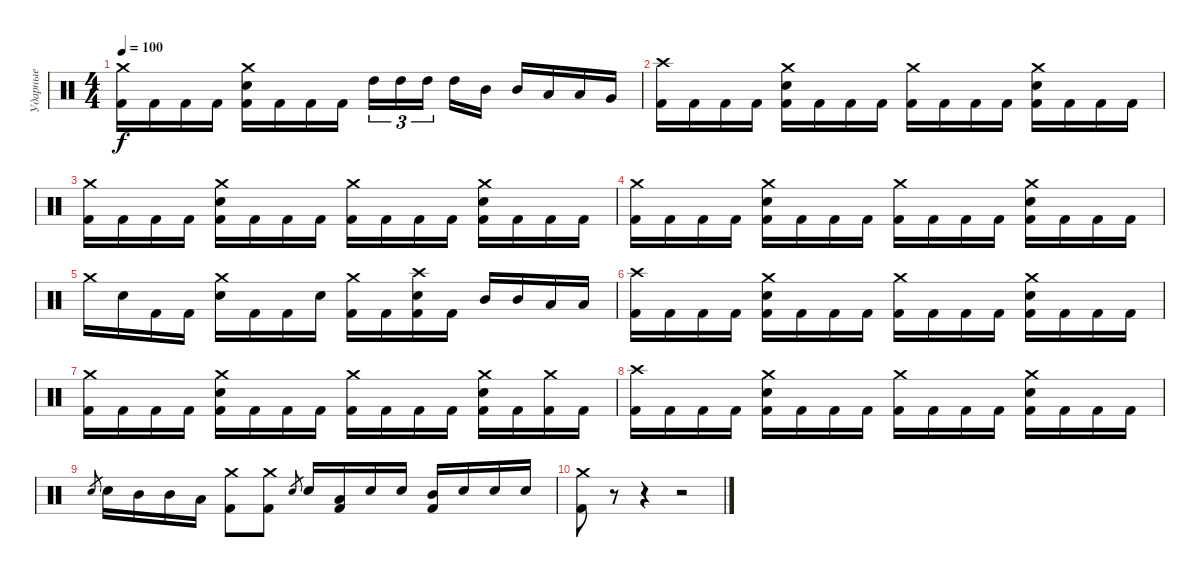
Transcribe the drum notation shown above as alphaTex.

\track ("Ударные" "Ударные") {instrument percussion}
\staff {score}
\articulation defaults
\ts (4 4)
\tempo 100
\clef neutral
\ks c
("Crash medium (hit)" "Kick (hit) 2").16{dy f} "Kick (hit) 2".16 "Kick (hit) 2".16 "Kick (hit) 2".16 ("Crash medium (hit)" "Electric Snare (hit)" "Kick (hit) 2").16 "Kick (hit) 2".16 "Kick (hit) 2".16 "Kick (hit) 2".16 "High Tom (hit)".16{tu (3 2)} "High Tom (hit)".16{tu (3 2)} "High Tom (hit)".16{tu (3 2) beam splitsecondary} "High Tom (hit)".16 "Mid Tom (hit)".16 "Mid Tom (hit)".16 "Low Tom (hit)".16 "Low Tom (hit)".16 "Very Low Tom (hit)".16 |
("Crash high (hit)" "Kick (hit) 2").16 "Kick (hit) 2".16 "Kick (hit) 2".16 "Kick (hit) 2".16 ("Crash medium (hit)" "Electric Snare (hit)" "Kick (hit) 2").16 "Kick (hit) 2".16 "Kick (hit) 2".16 "Kick (hit) 2".16 ("Crash medium (hit)" "Kick (hit) 2").16 "Kick (hit) 2".16 "Kick (hit) 2".16 "Kick (hit) 2".16 ("Crash medium (hit)" "Electric Snare (hit)" "Kick (hit) 2").16 "Kick (hit) 2".16 "Kick (hit) 2".16 "Kick (hit) 2".16 |
("Crash medium (hit)" "Kick (hit) 2").16 "Kick (hit) 2".16 "Kick (hit) 2".16 "Kick (hit) 2".16 ("Crash medium (hit)" "Electric Snare (hit)" "Kick (hit) 2").16 "Kick (hit) 2".16 "Kick (hit) 2".16 "Kick (hit) 2".16 ("Crash medium (hit)" "Kick (hit) 2").16 "Kick (hit) 2".16 "Kick (hit) 2".16 "Kick (hit) 2".16 ("Crash medium (hit)" "Electric Snare (hit)" "Kick (hit) 2").16 "Kick (hit) 2".16 "Kick (hit) 2".16 "Kick (hit) 2".16 |
("Crash medium (hit)" "Kick (hit) 2").16 "Kick (hit) 2".16 "Kick (hit) 2".16 "Kick (hit) 2".16 ("Crash medium (hit)" "Electric Snare (hit)" "Kick (hit) 2").16 "Kick (hit) 2".16 "Kick (hit) 2".16 "Kick (hit) 2".16 ("Crash medium (hit)" "Kick (hit) 2").16 "Kick (hit) 2".16 "Kick (hit) 2".16 "Kick (hit) 2".16 ("Crash medium (hit)" "Electric Snare (hit)" "Kick (hit) 2").16 "Kick (hit) 2".16 "Kick (hit) 2".16 "Kick (hit) 2".16 |
"Crash medium (hit)".16 "Electric Snare (hit)".16 "Kick (hit) 2".16 "Kick (hit) 2".16 ("Electric Snare (hit)" "Crash medium (hit)").16 "Kick (hit) 2".16 "Kick (hit) 2".16 "Electric Snare (hit)".16 ("Kick (hit) 2" "Crash medium (hit)").16 "Kick (hit) 2".16 ("Kick (hit) 2" "Electric Snare (hit)" "Crash high (hit)").16 "Kick (hit) 2".16 "Mid Tom (hit)".16 "Mid Tom (hit)".16 "Low Tom (hit)".16 "Low Tom (hit)".16 |
("Crash high (hit)" "Kick (hit) 2").16 "Kick (hit) 2".16 "Kick (hit) 2".16 "Kick (hit) 2".16 ("Crash medium (hit)" "Electric Snare (hit)" "Kick (hit) 2").16 "Kick (hit) 2".16 "Kick (hit) 2".16 "Kick (hit) 2".16 ("Crash medium (hit)" "Kick (hit) 2").16 "Kick (hit) 2".16 "Kick (hit) 2".16 "Kick (hit) 2".16 ("Crash medium (hit)" "Electric Snare (hit)" "Kick (hit) 2").16 "Kick (hit) 2".16 "Kick (hit) 2".16 "Kick (hit) 2".16 |
("Crash medium (hit)" "Kick (hit) 2").16 "Kick (hit) 2".16 "Kick (hit) 2".16 "Kick (hit) 2".16 ("Crash medium (hit)" "Electric Snare (hit)" "Kick (hit) 2").16 "Kick (hit) 2".16 "Kick (hit) 2".16 "Kick (hit) 2".16 ("Crash medium (hit)" "Kick (hit) 2").16 "Kick (hit) 2".16 "Kick (hit) 2".16 "Kick (hit) 2".16 ("Crash medium (hit)" "Electric Snare (hit)" "Kick (hit) 2").16 "Kick (hit) 2".16 ("Crash medium (hit)" "Kick (hit) 2").16 "Kick (hit) 2".16 |
("Crash high (hit)" "Kick (hit) 2").16 "Kick (hit) 2".16 "Kick (hit) 2".16 "Kick (hit) 2".16 ("Crash medium (hit)" "Electric Snare (hit)" "Kick (hit) 2").16 "Kick (hit) 2".16 "Kick (hit) 2".16 "Kick (hit) 2".16 ("Crash medium (hit)" "Kick (hit) 2").16 "Kick (hit) 2".16 "Kick (hit) 2".16 "Kick (hit) 2".16 ("Crash medium (hit)" "Electric Snare (hit)" "Kick (hit) 2").16 "Kick (hit) 2".16 "Kick (hit) 2".16 "Kick (hit) 2".16 |
"Electric Snare (hit)".8{gr} "Electric Snare (hit)".16 "Mid Tom (hit)".16 "Mid Tom (hit)".16 "Low Tom (hit)".16 ("Crash medium (hit)" "Kick (hit) 2").8 ("Crash medium (hit)" "Kick (hit) 2").8 "Electric Snare (hit)".8{gr} "Electric Snare (hit)".16 ("Low Tom (hit)" "Kick (hit) 2").16 "Electric Snare (hit)".16 "Electric Snare (hit)".16 ("Mid Tom (hit)" "Kick (hit) 2").16 "Electric Snare (hit)".16 "Electric Snare (hit)".16 "Electric Snare (hit)".16 |
("Crash medium (hit)" "Kick (hit) 2").8 r.8 r.4 r.2
